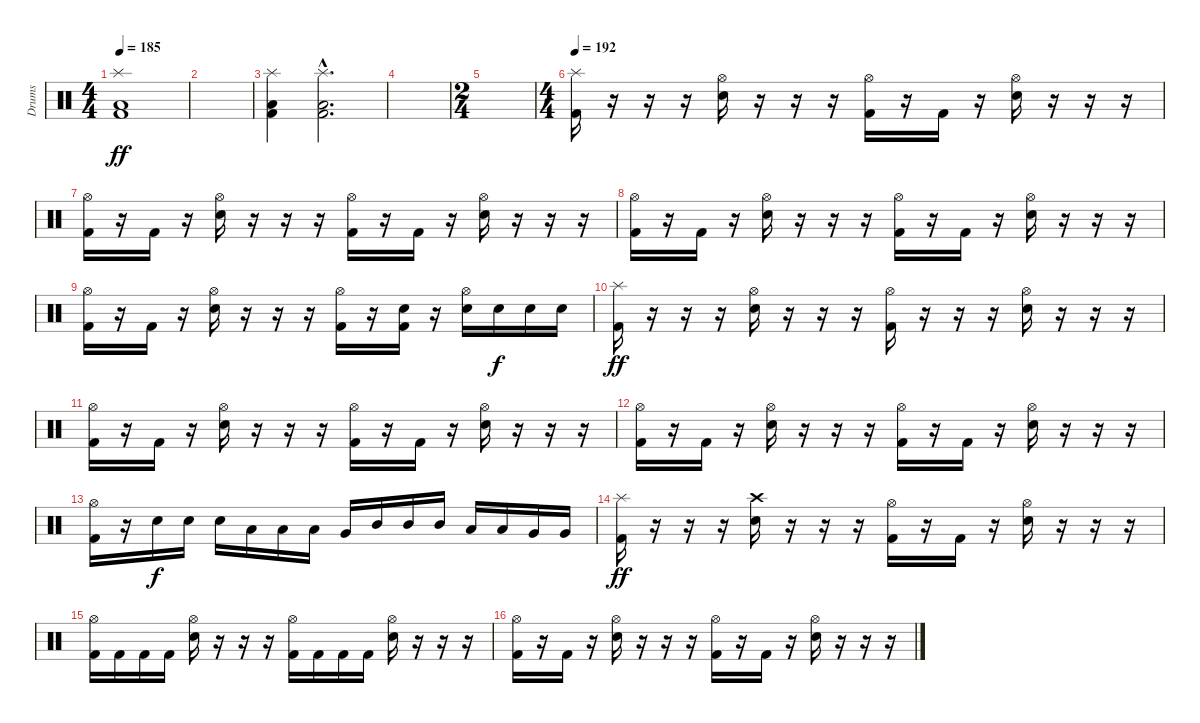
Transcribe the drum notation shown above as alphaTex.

\track ("Drums" "Drums") {instrument percussion}
\staff {score}
\articulation defaults
\ts (4 4)
\tempo 185
\clef neutral
\ks c
("Splash (hit)" "Low Floor Tom (hit)" "Kick (hit) 2").1{dy ff} |
|
("Splash (hit)" "Low Floor Tom (hit)" "Kick (hit) 2").4 ("Splash (hit)"{hac} "Low Floor Tom (hit)"{hac} "Kick (hit) 2"{hac}).2{d} |
|
\ts (2 4)
|
\ts (4 4)
\tempo 192
("Splash (hit)" "Kick (hit) 2").16 r.16 r.16 r.16 ("Hi-Hat (open)" "Electric Snare (hit)").16 r.16 r.16 r.16 ("Hi-Hat (open)" "Kick (hit) 2").16 r.16 "Kick (hit) 2".16 r.16 ("Hi-Hat (open)" "Electric Snare (hit)").16 r.16 r.16 r.16 |
("Hi-Hat (open)" "Kick (hit) 2").16 r.16 "Kick (hit) 2".16 r.16 ("Hi-Hat (open)" "Electric Snare (hit)").16 r.16 r.16 r.16 ("Hi-Hat (open)" "Kick (hit) 2").16 r.16 "Kick (hit) 2".16 r.16 ("Hi-Hat (open)" "Electric Snare (hit)").16 r.16 r.16 r.16 |
("Hi-Hat (open)" "Kick (hit) 2").16 r.16 "Kick (hit) 2".16 r.16 ("Hi-Hat (open)" "Electric Snare (hit)").16 r.16 r.16 r.16 ("Hi-Hat (open)" "Kick (hit) 2").16 r.16 "Kick (hit) 2".16 r.16 ("Hi-Hat (open)" "Electric Snare (hit)").16 r.16 r.16 r.16 |
("Hi-Hat (open)" "Kick (hit) 2").16 r.16 "Kick (hit) 2".16 r.16 ("Hi-Hat (open)" "Electric Snare (hit)").16 r.16 r.16 r.16 ("Hi-Hat (open)" "Kick (hit) 2").16 r.16 ("Electric Snare (hit)" "Kick (hit) 2").16 r.16 ("Hi-Hat (open)" "Electric Snare (hit)").16 "Electric Snare (hit)".16{dy f} "Electric Snare (hit)".16 "Electric Snare (hit)".16 |
("Splash (hit)" "Kick (hit) 2").16{dy ff} r.16 r.16 r.16 ("Hi-Hat (open)" "Electric Snare (hit)").16 r.16 r.16 r.16 ("Hi-Hat (open)" "Kick (hit) 2").16 r.16 r.16 r.16 ("Hi-Hat (open)" "Electric Snare (hit)").16 r.16 r.16 r.16 |
("Hi-Hat (open)" "Kick (hit) 2").16 r.16 "Kick (hit) 2".16 r.16 ("Hi-Hat (open)" "Electric Snare (hit)").16 r.16 r.16 r.16 ("Hi-Hat (open)" "Kick (hit) 2").16 r.16 "Kick (hit) 2".16 r.16 ("Hi-Hat (open)" "Electric Snare (hit)").16 r.16 r.16 r.16 |
("Hi-Hat (open)" "Kick (hit) 2").16 r.16 "Kick (hit) 2".16 r.16 ("Hi-Hat (open)" "Electric Snare (hit)").16 r.16 r.16 r.16 ("Hi-Hat (open)" "Kick (hit) 2").16 r.16 "Kick (hit) 2".16 r.16 ("Hi-Hat (open)" "Electric Snare (hit)").16 r.16 r.16 r.16 |
("Hi-Hat (open)" "Kick (hit) 2").16 r.16 "Electric Snare (hit)".16{dy f} "Electric Snare (hit)".16 "Electric Snare (hit)".16 "Low Tom (hit)".16 "Low Tom (hit)".16 "Low Tom (hit)".16 "Very Low Tom (hit)".16 "Mid Tom (hit)".16 "Mid Tom (hit)".16 "Mid Tom (hit)".16 "Low Tom (hit)".16 "Low Tom (hit)".16 "Very Low Tom (hit)".16 "Very Low Tom (hit)".16 |
("Splash (hit)" "Kick (hit) 2").16{dy ff} r.16 r.16 r.16 ("Crash high (hit)" "Electric Snare (hit)").16 r.16 r.16 r.16 ("Hi-Hat (open)" "Kick (hit) 2").16 r.16 "Kick (hit) 2".16 r.16 ("Hi-Hat (open)" "Electric Snare (hit)").16 r.16 r.16 r.16 |
("Hi-Hat (open)" "Kick (hit) 2").16 "Kick (hit) 2".16 "Kick (hit) 2".16 "Kick (hit) 2".16 ("Hi-Hat (open)" "Electric Snare (hit)").16 r.16 r.16 r.16 ("Hi-Hat (open)" "Kick (hit) 2").16 "Kick (hit) 2".16 "Kick (hit) 2".16 "Kick (hit) 2".16 ("Hi-Hat (open)" "Electric Snare (hit)").16 r.16 r.16 r.16 |
("Hi-Hat (open)" "Kick (hit) 2").16 r.16 "Kick (hit) 2".16 r.16 ("Hi-Hat (open)" "Electric Snare (hit)").16 r.16 r.16 r.16 ("Hi-Hat (open)" "Kick (hit) 2").16 r.16 "Kick (hit) 2".16 r.16 ("Hi-Hat (open)" "Electric Snare (hit)").16 r.16 r.16 r.16
